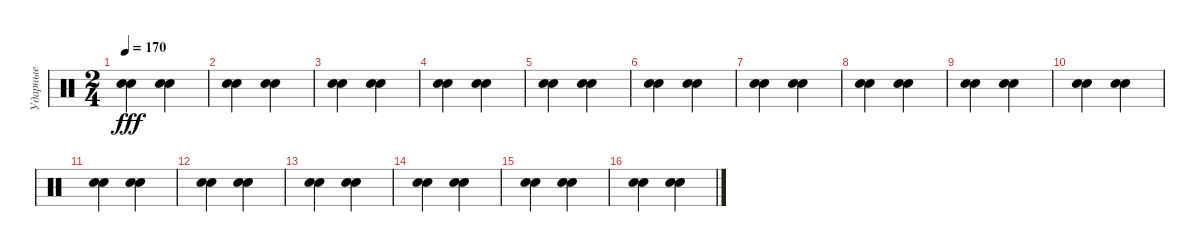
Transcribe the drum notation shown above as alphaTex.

\track ("Ударные" "Ударные") {instrument percussion}
\staff {score}
\articulation defaults
\ts (2 4)
\tempo 170
\clef neutral
\ks c
("Snare (hit) 2" "Electric Snare (hit)").4{dy fff} ("Snare (hit) 2" "Electric Snare (hit)").4 |
("Snare (hit) 2" "Electric Snare (hit)").4 ("Snare (hit) 2" "Electric Snare (hit)").4 |
("Snare (hit) 2" "Electric Snare (hit)").4 ("Snare (hit) 2" "Electric Snare (hit)").4 |
("Snare (hit) 2" "Electric Snare (hit)").4 ("Snare (hit) 2" "Electric Snare (hit)").4 |
("Snare (hit) 2" "Electric Snare (hit)").4 ("Snare (hit) 2" "Electric Snare (hit)").4 |
("Snare (hit) 2" "Electric Snare (hit)").4 ("Snare (hit) 2" "Electric Snare (hit)").4 |
("Snare (hit) 2" "Electric Snare (hit)").4 ("Snare (hit) 2" "Electric Snare (hit)").4 |
("Snare (hit) 2" "Electric Snare (hit)").4 ("Snare (hit) 2" "Electric Snare (hit)").4 |
("Snare (hit) 2" "Electric Snare (hit)").4 ("Snare (hit) 2" "Electric Snare (hit)").4 |
("Snare (hit) 2" "Electric Snare (hit)").4 ("Snare (hit) 2" "Electric Snare (hit)").4 |
("Snare (hit) 2" "Electric Snare (hit)").4 ("Snare (hit) 2" "Electric Snare (hit)").4 |
("Snare (hit) 2" "Electric Snare (hit)").4 ("Snare (hit) 2" "Electric Snare (hit)").4 |
("Snare (hit) 2" "Electric Snare (hit)").4 ("Snare (hit) 2" "Electric Snare (hit)").4 |
("Snare (hit) 2" "Electric Snare (hit)").4 ("Snare (hit) 2" "Electric Snare (hit)").4 |
("Snare (hit) 2" "Electric Snare (hit)").4 ("Snare (hit) 2" "Electric Snare (hit)").4 |
("Snare (hit) 2" "Electric Snare (hit)").4 ("Snare (hit) 2" "Electric Snare (hit)").4
